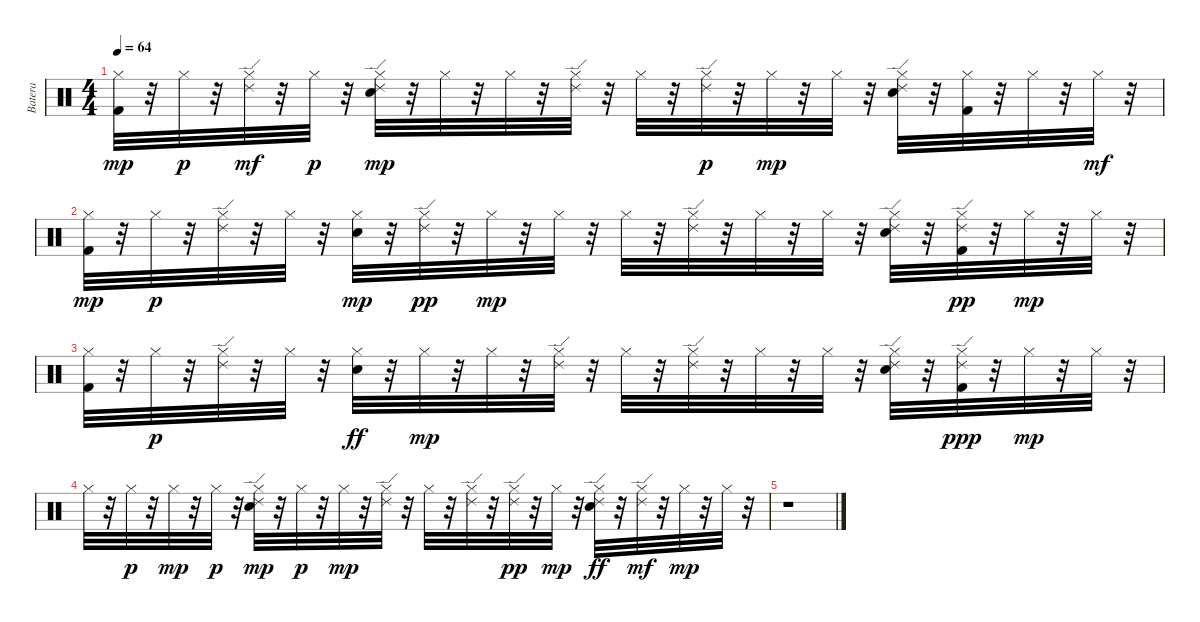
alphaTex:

\track ("Batera" "Batera") {instrument percussion}
\staff {score}
\articulation defaults
\ts (4 4)
\tempo 64
\clef neutral
\ks c
("Hi-Hat (closed)" "Kick (hit) 2").32{dy mp} r.32 "Hi-Hat (closed)".32{dy p} r.32 ("Hi-Hat (closed)" "Ride (edge) 2").32{dy mf} r.32 "Hi-Hat (closed)".32{dy p} r.32 ("Hi-Hat (closed)" "Snare (hit) 2" "Ride (edge) 2").32{dy mp} r.32 "Hi-Hat (closed)".32 r.32 "Hi-Hat (closed)".32 r.32 ("Hi-Hat (closed)" "Ride (edge) 2").32 r.32 "Hi-Hat (closed)".32 r.32 ("Hi-Hat (closed)" "Ride (edge) 2").32{dy p} r.32 "Hi-Hat (closed)".32{dy mp} r.32 "Hi-Hat (closed)".32 r.32 ("Hi-Hat (closed)" "Snare (hit) 2" "Ride (edge) 2").32 r.32 ("Hi-Hat (closed)" "Kick (hit) 2").32 r.32 "Hi-Hat (closed)".32 r.32 "Hi-Hat (closed)".32{dy mf} r.32 |
("Hi-Hat (closed)" "Kick (hit) 2").32{dy mp} r.32 "Hi-Hat (closed)".32{dy p} r.32 ("Hi-Hat (closed)" "Ride (edge) 2").32 r.32 "Hi-Hat (closed)".32 r.32 ("Hi-Hat (closed)" "Snare (hit) 2").32{dy mp} r.32 ("Hi-Hat (closed)" "Ride (edge) 2").32{dy pp} r.32 "Hi-Hat (closed)".32{dy mp} r.32 "Hi-Hat (closed)".32 r.32 "Hi-Hat (closed)".32 r.32 ("Hi-Hat (closed)" "Ride (edge) 2").32 r.32 "Hi-Hat (closed)".32 r.32 "Hi-Hat (closed)".32 r.32 ("Hi-Hat (closed)" "Snare (hit) 2" "Ride (edge) 2").32 r.32 ("Hi-Hat (closed)" "Ride (edge) 2" "Kick (hit) 2").32{dy pp} r.32 "Hi-Hat (closed)".32{dy mp} r.32 "Hi-Hat (closed)".32 r.32 |
("Hi-Hat (closed)" "Kick (hit) 2").32 r.32 "Hi-Hat (closed)".32{dy p} r.32 ("Hi-Hat (closed)" "Ride (edge) 2").32 r.32 "Hi-Hat (closed)".32 r.32 ("Hi-Hat (closed)" "Snare (hit) 2").32{dy ff} r.32 "Hi-Hat (closed)".32{dy mp} r.32 "Hi-Hat (closed)".32 r.32 ("Hi-Hat (closed)" "Ride (edge) 2").32 r.32 "Hi-Hat (closed)".32 r.32 ("Hi-Hat (closed)" "Ride (edge) 2").32 r.32 "Hi-Hat (closed)".32 r.32 "Hi-Hat (closed)".32 r.32 ("Hi-Hat (closed)" "Snare (hit) 2" "Ride (edge) 2").32 r.32 ("Hi-Hat (closed)" "Kick (hit) 2" "Ride (edge) 2").32{dy ppp} r.32 "Hi-Hat (closed)".32{dy mp} r.32 "Hi-Hat (closed)".32 r.32 |
"Hi-Hat (closed)".32 r.32 "Hi-Hat (closed)".32{dy p} r.32 "Hi-Hat (closed)".32{dy mp} r.32 "Hi-Hat (closed)".32{dy p} r.32 ("Hi-Hat (closed)" "Snare (hit) 2" "Ride (edge) 2").32{dy mp} r.32 "Hi-Hat (closed)".32{dy p} r.32 "Hi-Hat (closed)".32{dy mp} r.32 ("Hi-Hat (closed)" "Ride (edge) 2").32 r.32 "Hi-Hat (closed)".32 r.32 ("Hi-Hat (closed)" "Ride (edge) 2").32 r.32 ("Hi-Hat (closed)" "Ride (edge) 2").32{dy pp} r.32 "Hi-Hat (closed)".32{dy mp} r.32 ("Hi-Hat (closed)" "Ride (edge) 2" "Snare (hit) 2").32{dy ff} r.32 ("Hi-Hat (closed)" "Ride (edge) 2").32{dy mf} r.32 "Hi-Hat (closed)".32{dy mp} r.32 "Hi-Hat (closed)".32 r.32 |
r.1
